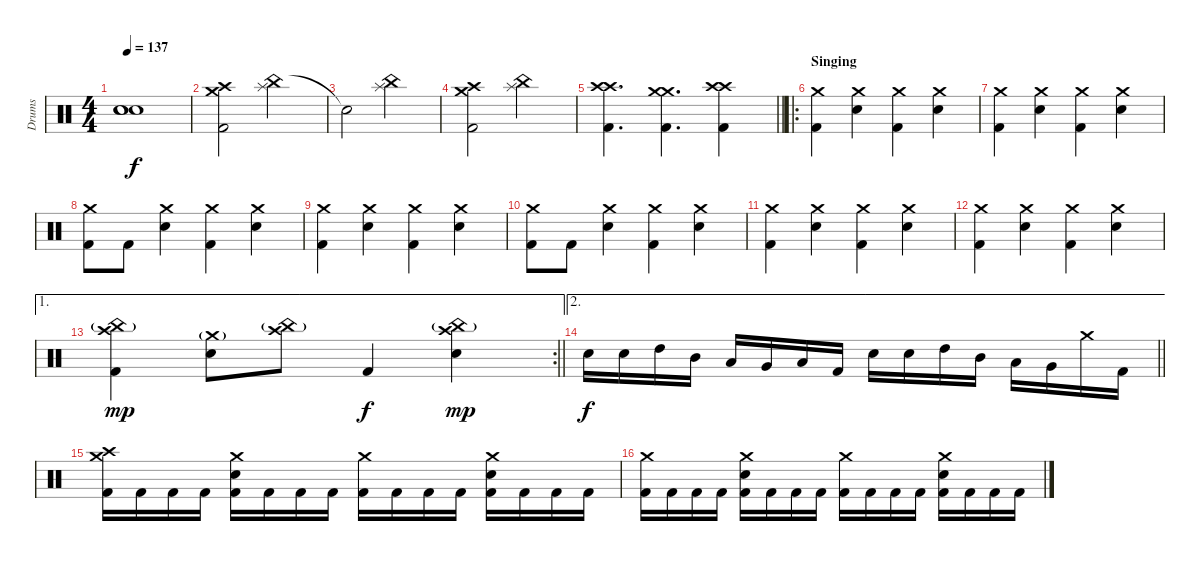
\track ("Drums" "Drums") {instrument percussion}
\staff {score}
\articulation defaults
\ts (4 4)
\tempo 137
\clef neutral
\ks c
("Snare (hit)"{t} "Snare (hit)"{t} "Snare (hit)"{t}).1{dy f} |
("Kick (hit) 2" "Crash high (hit)" "Crash medium (hit)").2 ("China (hit)" "Splash (hit)").2 |
"Snare (hit)"{t}.2 ("China (hit)" "Splash (hit)").2 |
("Kick (hit) 2" "Crash high (hit)" "Crash medium (hit)").2 ("China (hit)" "Splash (hit)").2 |
\barLineRight lightlight
("Kick (hit) 2" "Crash high (hit)" "Crash high (hit)").4{d} ("Kick (hit) 2" "Crash medium (hit)" "Crash medium (hit)").4{d} ("Kick (hit) 2" "Crash high (hit)" "Crash high (hit)").4 |
\ro
\section ("" "Singing")
("Kick (hit) 2" "Crash medium (hit)").4 ("Snare (hit) 2" "Crash medium (hit)").4 ("Kick (hit) 2" "Crash medium (hit)").4 ("Snare (hit) 2" "Crash medium (hit)").4 |
("Kick (hit) 2" "Crash medium (hit)").4 ("Snare (hit) 2" "Crash medium (hit)").4 ("Kick (hit) 2" "Crash medium (hit)").4 ("Snare (hit) 2" "Crash medium (hit)").4 |
("Kick (hit) 2" "Crash medium (hit)").8 "Kick (hit) 2".8 ("Snare (hit) 2" "Crash medium (hit)").4 ("Kick (hit) 2" "Crash medium (hit)").4 ("Snare (hit) 2" "Crash medium (hit)").4 |
("Kick (hit) 2" "Crash medium (hit)").4 ("Snare (hit) 2" "Crash medium (hit)").4 ("Kick (hit) 2" "Crash medium (hit)").4 ("Snare (hit) 2" "Crash medium (hit)").4 |
("Kick (hit) 2" "Crash medium (hit)").8 "Kick (hit) 2".8 ("Snare (hit) 2" "Crash medium (hit)").4 ("Kick (hit) 2" "Crash medium (hit)").4 ("Snare (hit) 2" "Crash medium (hit)").4 |
("Kick (hit) 2" "Crash medium (hit)").4 ("Snare (hit) 2" "Crash medium (hit)").4 ("Kick (hit) 2" "Crash medium (hit)").4 ("Snare (hit) 2" "Crash medium (hit)").4 |
("Kick (hit) 2" "Crash medium (hit)").4 ("Snare (hit) 2" "Crash medium (hit)").4 ("Kick (hit) 2" "Crash medium (hit)").4 ("Snare (hit) 2" "Crash medium (hit)").4 |
\ae 1
\rc 2
\barLineRight lightlight
("Kick (hit) 2" "Crash high (hit)" "China (hit)"{g}).4{dy mp} ("Snare (hit) 2" "Crash medium (hit)"{g}).8 ("Crash high (hit)" "China (hit)"{g}).8 "Kick (hit) 2".4{dy f} ("Snare (hit) 2" "Crash high (hit)" "China (hit)"{g}).4{dy mp} |
\ae 2
\barLineRight lightlight "Snare (hit) 2".16{dy f} "Snare (hit) 2".16 "High Tom (hit)".16 "Mid Tom (hit)".16 "Low Tom (hit)".16 "Very Low Tom (hit)".16 "Low Floor Tom (hit)".16 "Kick (hit) 2".16 "Snare (hit) 2".16 "Snare (hit) 2".16 "High Tom (hit)".16 "Mid Tom (hit)".16 "Low Tom (hit)".16 "Very Low Tom (hit)".16 "Crash medium (hit)".16 "Kick (hit) 2".16
|
\section ("" "")
("Kick (hit) 2" "Crash medium (hit)" "Crash high (hit)").16 "Kick (hit) 2".16 "Kick (hit) 2".16 "Kick (hit) 2".16 ("Kick (hit) 2" "Snare (hit) 2" "Crash medium (hit)").16 "Kick (hit) 2".16 "Kick (hit) 2".16 "Kick (hit) 2".16 ("Kick (hit) 2" "Crash medium (hit)").16 "Kick (hit) 2".16 "Kick (hit) 2".16 "Kick (hit) 2".16 ("Kick (hit) 2" "Snare (hit) 2" "Crash medium (hit)").16 "Kick (hit) 2".16 "Kick (hit) 2".16 "Kick (hit) 2".16 |
("Kick (hit) 2" "Crash medium (hit)").16 "Kick (hit) 2".16 "Kick (hit) 2".16 "Kick (hit) 2".16 ("Kick (hit) 2" "Snare (hit) 2" "Crash medium (hit)").16 "Kick (hit) 2".16 "Kick (hit) 2".16 "Kick (hit) 2".16 ("Kick (hit) 2" "Crash medium (hit)").16 "Kick (hit) 2".16 "Kick (hit) 2".16 "Kick (hit) 2".16 ("Kick (hit) 2" "Snare (hit) 2" "Crash medium (hit)").16 "Kick (hit) 2".16 "Kick (hit) 2".16 "Kick (hit) 2".16
